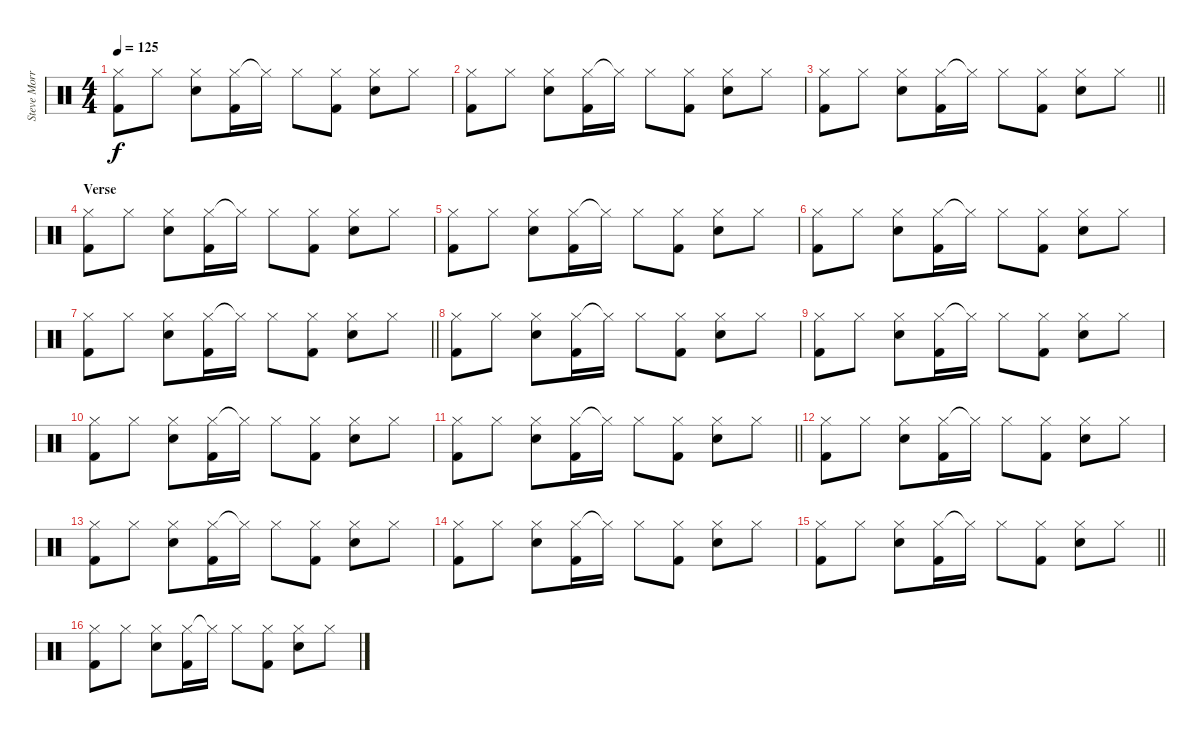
\track ("Steve Morris" "Steve Morr") {instrument percussion}
\staff {score}
\articulation defaults
\ts (4 4)
\tempo 125
\clef neutral
\ks c
("Hi-Hat (closed)" "Kick (hit) 2").8{dy f} "Hi-Hat (closed)".8 ("Hi-Hat (closed)" "Electric Snare (hit)").8 ("Hi-Hat (closed)" "Kick (hit) 2").16 "Hi-Hat (closed)"{t}.16 "Hi-Hat (closed)".8 ("Hi-Hat (closed)" "Kick (hit) 2").8 ("Hi-Hat (closed)" "Electric Snare (hit)").8 "Hi-Hat (closed)".8 |
("Hi-Hat (closed)" "Kick (hit) 2").8 "Hi-Hat (closed)".8 ("Hi-Hat (closed)" "Electric Snare (hit)").8 ("Hi-Hat (closed)" "Kick (hit) 2").16 "Hi-Hat (closed)"{t}.16 "Hi-Hat (closed)".8 ("Hi-Hat (closed)" "Kick (hit) 2").8 ("Hi-Hat (closed)" "Electric Snare (hit)").8 "Hi-Hat (closed)".8 |
\barLineRight lightlight
("Hi-Hat (closed)" "Kick (hit) 2").8 "Hi-Hat (closed)".8 ("Hi-Hat (closed)" "Electric Snare (hit)").8 ("Hi-Hat (closed)" "Kick (hit) 2").16 "Hi-Hat (closed)"{t}.16 "Hi-Hat (closed)".8 ("Hi-Hat (closed)" "Kick (hit) 2").8 ("Hi-Hat (closed)" "Electric Snare (hit)").8 "Hi-Hat (closed)".8 |
\section ("" "Verse")
("Hi-Hat (closed)" "Kick (hit) 2").8 "Hi-Hat (closed)".8 ("Hi-Hat (closed)" "Electric Snare (hit)").8 ("Hi-Hat (closed)" "Kick (hit) 2").16 "Hi-Hat (closed)"{t}.16 "Hi-Hat (closed)".8 ("Hi-Hat (closed)" "Kick (hit) 2").8 ("Hi-Hat (closed)" "Electric Snare (hit)").8 "Hi-Hat (closed)".8 |
("Hi-Hat (closed)" "Kick (hit) 2").8 "Hi-Hat (closed)".8 ("Hi-Hat (closed)" "Electric Snare (hit)").8 ("Hi-Hat (closed)" "Kick (hit) 2").16 "Hi-Hat (closed)"{t}.16 "Hi-Hat (closed)".8 ("Hi-Hat (closed)" "Kick (hit) 2").8 ("Hi-Hat (closed)" "Electric Snare (hit)").8 "Hi-Hat (closed)".8 |
("Hi-Hat (closed)" "Kick (hit) 2").8 "Hi-Hat (closed)".8 ("Hi-Hat (closed)" "Electric Snare (hit)").8 ("Hi-Hat (closed)" "Kick (hit) 2").16 "Hi-Hat (closed)"{t}.16 "Hi-Hat (closed)".8 ("Hi-Hat (closed)" "Kick (hit) 2").8 ("Hi-Hat (closed)" "Electric Snare (hit)").8 "Hi-Hat (closed)".8 |
\barLineRight lightlight
("Hi-Hat (closed)" "Kick (hit) 2").8 "Hi-Hat (closed)".8 ("Hi-Hat (closed)" "Electric Snare (hit)").8 ("Hi-Hat (closed)" "Kick (hit) 2").16 "Hi-Hat (closed)"{t}.16 "Hi-Hat (closed)".8 ("Hi-Hat (closed)" "Kick (hit) 2").8 ("Hi-Hat (closed)" "Electric Snare (hit)").8 "Hi-Hat (closed)".8 |
("Hi-Hat (closed)" "Kick (hit) 2").8 "Hi-Hat (closed)".8 ("Hi-Hat (closed)" "Electric Snare (hit)").8 ("Hi-Hat (closed)" "Kick (hit) 2").16 "Hi-Hat (closed)"{t}.16 "Hi-Hat (closed)".8 ("Hi-Hat (closed)" "Kick (hit) 2").8 ("Hi-Hat (closed)" "Electric Snare (hit)").8 "Hi-Hat (closed)".8 |
("Hi-Hat (closed)" "Kick (hit) 2").8 "Hi-Hat (closed)".8 ("Hi-Hat (closed)" "Electric Snare (hit)").8 ("Hi-Hat (closed)" "Kick (hit) 2").16 "Hi-Hat (closed)"{t}.16 "Hi-Hat (closed)".8 ("Hi-Hat (closed)" "Kick (hit) 2").8 ("Hi-Hat (closed)" "Electric Snare (hit)").8 "Hi-Hat (closed)".8 |
("Hi-Hat (closed)" "Kick (hit) 2").8 "Hi-Hat (closed)".8 ("Hi-Hat (closed)" "Electric Snare (hit)").8 ("Hi-Hat (closed)" "Kick (hit) 2").16 "Hi-Hat (closed)"{t}.16 "Hi-Hat (closed)".8 ("Hi-Hat (closed)" "Kick (hit) 2").8 ("Hi-Hat (closed)" "Electric Snare (hit)").8 "Hi-Hat (closed)".8 |
\barLineRight lightlight
("Hi-Hat (closed)" "Kick (hit) 2").8 "Hi-Hat (closed)".8 ("Hi-Hat (closed)" "Electric Snare (hit)").8 ("Hi-Hat (closed)" "Kick (hit) 2").16 "Hi-Hat (closed)"{t}.16 "Hi-Hat (closed)".8 ("Hi-Hat (closed)" "Kick (hit) 2").8 ("Hi-Hat (closed)" "Electric Snare (hit)").8 "Hi-Hat (closed)".8 |
("Hi-Hat (closed)" "Kick (hit) 2").8 "Hi-Hat (closed)".8 ("Hi-Hat (closed)" "Electric Snare (hit)").8 ("Hi-Hat (closed)" "Kick (hit) 2").16 "Hi-Hat (closed)"{t}.16 "Hi-Hat (closed)".8 ("Hi-Hat (closed)" "Kick (hit) 2").8 ("Hi-Hat (closed)" "Electric Snare (hit)").8 "Hi-Hat (closed)".8 |
("Hi-Hat (closed)" "Kick (hit) 2").8 "Hi-Hat (closed)".8 ("Hi-Hat (closed)" "Electric Snare (hit)").8 ("Hi-Hat (closed)" "Kick (hit) 2").16 "Hi-Hat (closed)"{t}.16 "Hi-Hat (closed)".8 ("Hi-Hat (closed)" "Kick (hit) 2").8 ("Hi-Hat (closed)" "Electric Snare (hit)").8 "Hi-Hat (closed)".8 |
("Hi-Hat (closed)" "Kick (hit) 2").8 "Hi-Hat (closed)".8 ("Hi-Hat (closed)" "Electric Snare (hit)").8 ("Hi-Hat (closed)" "Kick (hit) 2").16 "Hi-Hat (closed)"{t}.16 "Hi-Hat (closed)".8 ("Hi-Hat (closed)" "Kick (hit) 2").8 ("Hi-Hat (closed)" "Electric Snare (hit)").8 "Hi-Hat (closed)".8 |
\barLineRight lightlight
("Hi-Hat (closed)" "Kick (hit) 2").8 "Hi-Hat (closed)".8 ("Hi-Hat (closed)" "Electric Snare (hit)").8 ("Hi-Hat (closed)" "Kick (hit) 2").16 "Hi-Hat (closed)"{t}.16 "Hi-Hat (closed)".8 ("Hi-Hat (closed)" "Kick (hit) 2").8 ("Hi-Hat (closed)" "Electric Snare (hit)").8 "Hi-Hat (closed)".8 |
("Hi-Hat (closed)" "Kick (hit) 2").8 "Hi-Hat (closed)".8 ("Hi-Hat (closed)" "Electric Snare (hit)").8 ("Hi-Hat (closed)" "Kick (hit) 2").16 "Hi-Hat (closed)"{t}.16 "Hi-Hat (closed)".8 ("Hi-Hat (closed)" "Kick (hit) 2").8 ("Hi-Hat (closed)" "Electric Snare (hit)").8 "Hi-Hat (closed)".8
